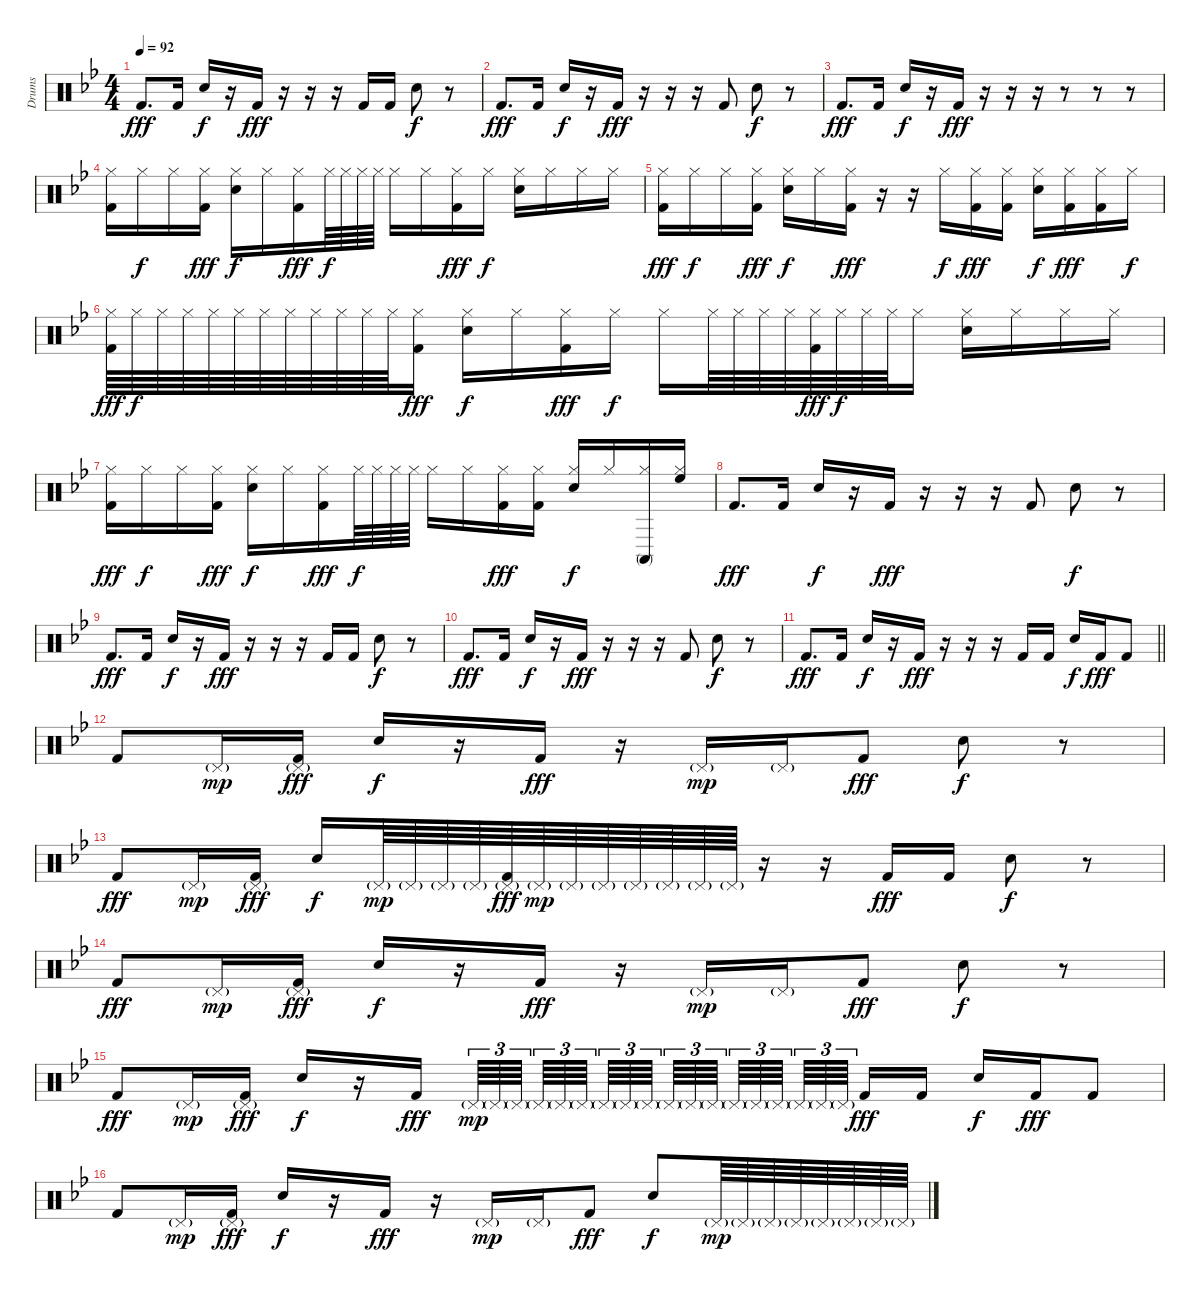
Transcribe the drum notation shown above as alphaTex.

\track ("Drums" "Drums") {instrument percussion}
\staff {score}
\articulation defaults
\ts (4 4)
\tempo 92
\clef neutral
\ks bb "Kick (hit) 2".8{d dy fff} "Kick (hit) 2".16 "Hand Clap (hit)".16{dy f}
r.16 "Kick (hit) 2".16{dy fff} r.16 r.16 r.16 "Kick (hit) 2".16 "Kick (hit) 2".16 "Hand Clap (hit)".8{dy f} r.8 |
"Kick (hit) 2".8{d dy fff} "Kick (hit) 2".16 "Hand Clap (hit)".16{dy f} r.16 "Kick (hit) 2".16{dy fff} r.16 r.16 r.16 "Kick (hit) 2".8 "Hand Clap (hit)".8{dy f} r.8 |
"Kick (hit) 2".8{d dy fff} "Kick (hit) 2".16 "Hand Clap (hit)".16{dy f} r.16 "Kick (hit) 2".16{dy fff} r.16 r.16 r.16 r.8 r.8 r.8 |
("Hi-Hat (closed)" "Kick (hit) 2").16 "Hi-Hat (closed)".16{dy f} "Hi-Hat (closed)".16 ("Hi-Hat (closed)" "Kick (hit) 2").16{dy fff} ("Hi-Hat (closed)" "Hand Clap (hit)").16{dy f} "Hi-Hat (closed)".16 ("Hi-Hat (closed)" "Kick (hit) 2").16{dy fff} "Hi-Hat (closed)".64{dy f} "Hi-Hat (closed)".64 "Hi-Hat (closed)".64 "Hi-Hat (closed)".64 "Hi-Hat (closed)".16 "Hi-Hat (closed)".16 ("Hi-Hat (closed)" "Kick (hit) 2").16{dy fff} "Hi-Hat (closed)".16{dy f} ("Hi-Hat (closed)" "Hand Clap (hit)").16 "Hi-Hat (closed)".16 "Hi-Hat (closed)".16 "Hi-Hat (closed)".16 |
("Hi-Hat (closed)" "Kick (hit) 2").16{dy fff} "Hi-Hat (closed)".16{dy f} "Hi-Hat (closed)".16 ("Hi-Hat (closed)" "Kick (hit) 2").16{dy fff} ("Hi-Hat (closed)" "Hand Clap (hit)").16{dy f} "Hi-Hat (closed)".16 ("Hi-Hat (closed)" "Kick (hit) 2").16{dy fff} r.16 r.16 "Hi-Hat (closed)".16{dy f} ("Hi-Hat (closed)" "Kick (hit) 2").16{dy fff} ("Hi-Hat (closed)" "Kick (hit) 2").16 ("Hi-Hat (closed)" "Hand Clap (hit)").16{dy f} ("Hi-Hat (closed)" "Kick (hit) 2").16{dy fff} ("Hi-Hat (closed)" "Kick (hit) 2").16 "Hi-Hat (closed)".16{dy f} |
("Hi-Hat (closed)" "Kick (hit) 2").64{dy fff} "Hi-Hat (closed)".64{dy f} "Hi-Hat (closed)".64 "Hi-Hat (closed)".64 "Hi-Hat (closed)".64 "Hi-Hat (closed)".64 "Hi-Hat (closed)".64 "Hi-Hat (closed)".64 "Hi-Hat (closed)".64 "Hi-Hat (closed)".64 "Hi-Hat (closed)".64 "Hi-Hat (closed)".64 ("Hi-Hat (closed)" "Kick (hit) 2").16{dy fff} ("Hi-Hat (closed)" "Hand Clap (hit)").16{dy f} "Hi-Hat (closed)".16 ("Hi-Hat (closed)" "Kick (hit) 2").16{dy fff} "Hi-Hat (closed)".16{dy f} "Hi-Hat (closed)".16 "Hi-Hat (closed)".64 "Hi-Hat (closed)".64 "Hi-Hat (closed)".64 "Hi-Hat (closed)".64 ("Hi-Hat (closed)" "Kick (hit) 2").64{dy fff} "Hi-Hat (closed)".64{dy f} "Hi-Hat (closed)".64 "Hi-Hat (closed)".64 "Hi-Hat (closed)".16 ("Hi-Hat (closed)" "Hand Clap (hit)").16 "Hi-Hat (closed)".16 "Hi-Hat (closed)".16 "Hi-Hat (closed)".16 |
("Hi-Hat (closed)" "Kick (hit) 2").16{dy fff} "Hi-Hat (closed)".16{dy f} "Hi-Hat (closed)".16 ("Hi-Hat (closed)" "Kick (hit) 2").16{dy fff} ("Hi-Hat (closed)" "Hand Clap (hit)").16{dy f} "Hi-Hat (closed)".16 ("Hi-Hat (closed)" "Kick (hit) 2").16{dy fff} "Hi-Hat (closed)".64{dy f} "Hi-Hat (closed)".64 "Hi-Hat (closed)".64 "Hi-Hat (closed)".64 "Hi-Hat (closed)".16 "Hi-Hat (closed)".16 ("Hi-Hat (closed)" "Kick (hit) 2").16{dy fff} ("Hi-Hat (closed)" "Kick (hit) 2").16 ("Hi-Hat (closed)" "Hand Clap (hit)").16{dy f} "Hi-Hat (closed)".16 ("Hi-Hat (closed)" "Conga high (mute)").16 ("Hi-Hat (closed)" "High Floor Tom (hit)").16 |
"Kick (hit) 2".8{d dy fff} "Kick (hit) 2".16 "Hand Clap (hit)".16{dy f} r.16 "Kick (hit) 2".16{dy fff} r.16 r.16 r.16 "Kick (hit) 2".8 "Hand Clap (hit)".8{dy f} r.8 |
"Kick (hit) 2".8{d dy fff} "Kick (hit) 2".16 "Hand Clap (hit)".16{dy f} r.16 "Kick (hit) 2".16{dy fff} r.16 r.16 r.16 "Kick (hit) 2".16 "Kick (hit) 2".16 "Hand Clap (hit)".8{dy f} r.8 |
"Kick (hit) 2".8{d dy fff} "Kick (hit) 2".16 "Hand Clap (hit)".16{dy f} r.16 "Kick (hit) 2".16{dy fff} r.16 r.16 r.16 "Kick (hit) 2".8 "Hand Clap (hit)".8{dy f} r.8 |
\barLineRight lightlight "Kick (hit) 2".8{d dy fff} "Kick (hit) 2".16 "Hand Clap (hit)".16{dy f}
r.16 "Kick (hit) 2".16{dy fff} r.16 r.16 r.16 "Kick (hit) 2".16 "Kick (hit) 2".16 "Hand Clap (hit)".16{dy f} "Kick (hit) 2".16{dy fff} "Kick (hit) 2".8 |
"Kick (hit) 2".8 "Pedal Hi-Hat (hit)"{g}.16{dy mp} ("Pedal Hi-Hat (hit)"{g} "Kick (hit) 2").16{dy fff} "Hand Clap (hit)".16{dy f} r.16 "Kick (hit) 2".16{dy fff} r.16 "Pedal Hi-Hat (hit)"{g}.16{dy mp} "Pedal Hi-Hat (hit)"{g}.16 "Kick (hit) 2".8{dy fff} "Hand Clap (hit)".8{dy f} r.8 |
"Kick (hit) 2".8{dy fff} "Pedal Hi-Hat (hit)"{g}.16{dy mp} ("Pedal Hi-Hat (hit)"{g} "Kick (hit) 2").16{dy fff} "Hand Clap (hit)".16{dy f} "Pedal Hi-Hat (hit)"{g}.64{dy mp} "Pedal Hi-Hat (hit)"{g}.64 "Pedal Hi-Hat (hit)"{g}.64 "Pedal Hi-Hat (hit)"{g}.64 ("Pedal Hi-Hat (hit)"{g} "Kick (hit) 2").64{dy fff} "Pedal Hi-Hat (hit)"{g}.64{dy mp} "Pedal Hi-Hat (hit)"{g}.64 "Pedal Hi-Hat (hit)"{g}.64 "Pedal Hi-Hat (hit)"{g}.64 "Pedal Hi-Hat (hit)"{g}.64 "Pedal Hi-Hat (hit)"{g}.64 "Pedal Hi-Hat (hit)"{g}.64 r.16 r.16 "Kick (hit) 2".16{dy fff} "Kick (hit) 2".16 "Hand Clap (hit)".8{dy f} r.8 |
"Kick (hit) 2".8{dy fff} "Pedal Hi-Hat (hit)"{g}.16{dy mp} ("Pedal Hi-Hat (hit)"{g} "Kick (hit) 2").16{dy fff} "Hand Clap (hit)".16{dy f} r.16 "Kick (hit) 2".16{dy fff} r.16 "Pedal Hi-Hat (hit)"{g}.16{dy mp} "Pedal Hi-Hat (hit)"{g}.16 "Kick (hit) 2".8{dy fff} "Hand Clap (hit)".8{dy f} r.8 |
"Kick (hit) 2".8{dy fff} "Pedal Hi-Hat (hit)"{g}.16{dy mp} ("Pedal Hi-Hat (hit)"{g} "Kick (hit) 2").16{dy fff} "Hand Clap (hit)".16{dy f} r.16 "Kick (hit) 2".16{dy fff beam splitsecondary} "Pedal Hi-Hat (hit)"{g}.64{tu (3 2) dy mp} "Pedal Hi-Hat (hit)"{g}.64{tu (3 2)} "Pedal Hi-Hat (hit)"{g}.64{tu (3 2) beam splitsecondary} "Pedal Hi-Hat (hit)"{g}.64{tu (3 2)} "Pedal Hi-Hat (hit)"{g}.64{tu (3 2)} "Pedal Hi-Hat (hit)"{g}.64{tu (3 2)} "Pedal Hi-Hat (hit)"{g}.64{tu (3 2)} "Pedal Hi-Hat (hit)"{g}.64{tu (3 2)} "Pedal Hi-Hat (hit)"{g}.64{tu (3 2) beam splitsecondary} "Pedal Hi-Hat (hit)"{g}.64{tu (3 2)} "Pedal Hi-Hat (hit)"{g}.64{tu (3 2)} "Pedal Hi-Hat (hit)"{g}.64{tu (3 2) beam splitsecondary} "Pedal Hi-Hat (hit)"{g}.64{tu (3 2)} "Pedal Hi-Hat (hit)"{g}.64{tu (3 2)} "Pedal Hi-Hat (hit)"{g}.64{tu (3 2) beam splitsecondary} "Pedal Hi-Hat (hit)"{g}.64{tu (3 2)} "Pedal Hi-Hat (hit)"{g}.64{tu (3 2)} "Pedal Hi-Hat (hit)"{g}.64{tu (3 2) beam splitsecondary} "Kick (hit) 2".16{dy fff} "Kick (hit) 2".16 "Hand Clap (hit)".16{dy f} "Kick (hit) 2".16{dy fff} "Kick (hit) 2".8 |
"Kick (hit) 2".8 "Pedal Hi-Hat (hit)"{g}.16{dy mp} ("Pedal Hi-Hat (hit)"{g} "Kick (hit) 2").16{dy fff} "Hand Clap (hit)".16{dy f} r.16 "Kick (hit) 2".16{dy fff} r.16 "Pedal Hi-Hat (hit)"{g}.16{dy mp} "Pedal Hi-Hat (hit)"{g}.16 "Kick (hit) 2".8{dy fff} "Hand Clap (hit)".8{dy f} "Pedal Hi-Hat (hit)"{g}.64{dy mp} "Pedal Hi-Hat (hit)"{g}.64 "Pedal Hi-Hat (hit)"{g}.64 "Pedal Hi-Hat (hit)"{g}.64 "Pedal Hi-Hat (hit)"{g}.64 "Pedal Hi-Hat (hit)"{g}.64 "Pedal Hi-Hat (hit)"{g}.64 "Pedal Hi-Hat (hit)"{g}.64
